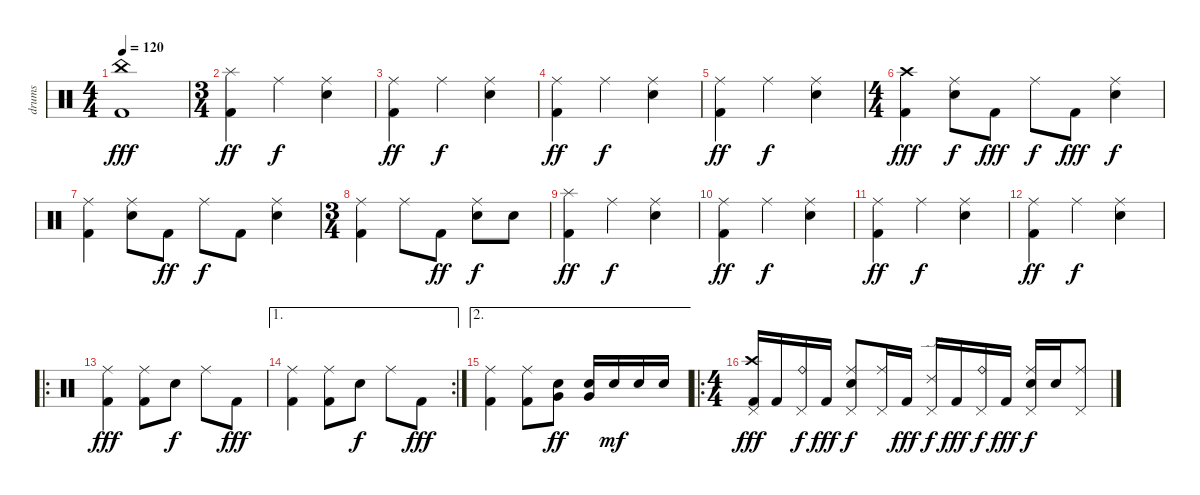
\track ("drums" "drums") {instrument percussion}
\staff {score}
\articulation defaults
\ts (4 4)
\tempo 120
\clef neutral
\ks c
("China (hit)" "Kick (hit) 2").1{dy fff} |
\ts (3 4)
("Splash (hit)" "Kick (hit) 2").4{dy ff} "Ride (middle)".4{dy f} ("Ride (middle)" "Electric Snare (hit)").4 |
("Ride (middle)" "Kick (hit) 2").4{dy ff} "Ride (middle)".4{dy f} ("Ride (middle)" "Electric Snare (hit)").4 |
("Ride (middle)" "Kick (hit) 2").4{dy ff} "Ride (middle)".4{dy f} ("Ride (middle)" "Electric Snare (hit)").4 |
("Ride (middle)" "Kick (hit) 2").4{dy ff} "Ride (middle)".4{dy f} ("Ride (middle)" "Electric Snare (hit)").4 |
\ts (4 4)
("Crash high (hit)" "Kick (hit) 2").4{dy fff} ("Ride (middle)" "Electric Snare (hit)").8{dy f} "Kick (hit) 2".8{dy fff} "Ride (middle)".8{dy f} "Kick (hit) 2".8{dy fff} ("Ride (middle)" "Electric Snare (hit)").4{dy f} |
("Ride (middle)" "Kick (hit) 2").4 ("Ride (middle)" "Electric Snare (hit)").8 "Kick (hit) 2".8{dy ff} "Ride (middle)".8{dy f} "Kick (hit) 2".8 ("Ride (middle)" "Electric Snare (hit)").4 |
\ts (3 4)
("Ride (middle)" "Kick (hit) 2").4 "Ride (middle)".8 "Kick (hit) 2".8{dy ff} ("Ride (middle)" "Electric Snare (hit)").8{dy f} "Electric Snare (hit)".8 |
("Splash (hit)" "Kick (hit) 2").4{dy ff} "Ride (middle)".4{dy f} ("Ride (middle)" "Electric Snare (hit)").4 |
("Ride (middle)" "Kick (hit) 2").4{dy ff} "Ride (middle)".4{dy f} ("Ride (middle)" "Electric Snare (hit)").4 |
("Ride (middle)" "Kick (hit) 2").4{dy ff} "Ride (middle)".4{dy f} ("Ride (middle)" "Electric Snare (hit)").4 |
("Ride (middle)" "Kick (hit) 2").4{dy ff} "Ride (middle)".4{dy f} ("Ride (middle)" "Electric Snare (hit)").4 |
\ro
("Ride (middle)" "Kick (hit) 2").4{dy fff} ("Ride (middle)" "Kick (hit) 2").8 "Electric Snare (hit)".8{dy f} "Ride (middle)".8 "Kick (hit) 2".8{dy fff} |
\ae 1
\rc 2
("Ride (middle)" "Kick (hit) 2").4 ("Ride (middle)" "Kick (hit) 2").8 "Electric Snare (hit)".8{dy f} "Ride (middle)".8 "Kick (hit) 2".8{dy fff} |
\ae 2
("Ride (middle)" "Kick (hit) 2").4 ("Ride (middle)" "Kick (hit) 2").8 ("Electric Snare (hit)" "Very Low Tom (hit)").8{dy ff} ("Electric Snare (hit)" "Very Low Tom (hit)").16 "Electric Snare (hit)".16{dy mf} "Electric Snare (hit)".16 "Electric Snare (hit)".16 |
\ro
\ts (4 4)
("Crash high (hit)" "Pedal Hi-Hat (hit)" "Kick (hit) 2").16{dy fff} "Kick (hit) 2".16 ("Ride (bell)" "Pedal Hi-Hat (hit)").16{dy f} "Kick (hit) 2".16{dy fff} ("Ride (middle)" "Pedal Hi-Hat (hit)" "Electric Snare (hit)").8{dy f} ("Ride (middle)" "Pedal Hi-Hat (hit)").16 "Kick (hit) 2".16{dy fff} ("Ride (edge) 2" "Pedal Hi-Hat (hit)").16{dy f} "Kick (hit) 2".16{dy fff} ("Ride (bell)" "Pedal Hi-Hat (hit)").16{dy f} "Kick (hit) 2".16{dy fff} ("Ride (middle)" "Pedal Hi-Hat (hit)" "Electric Snare (hit)").16{dy f} "Electric Snare (hit)".16 ("Ride (middle)" "Pedal Hi-Hat (hit)").8
